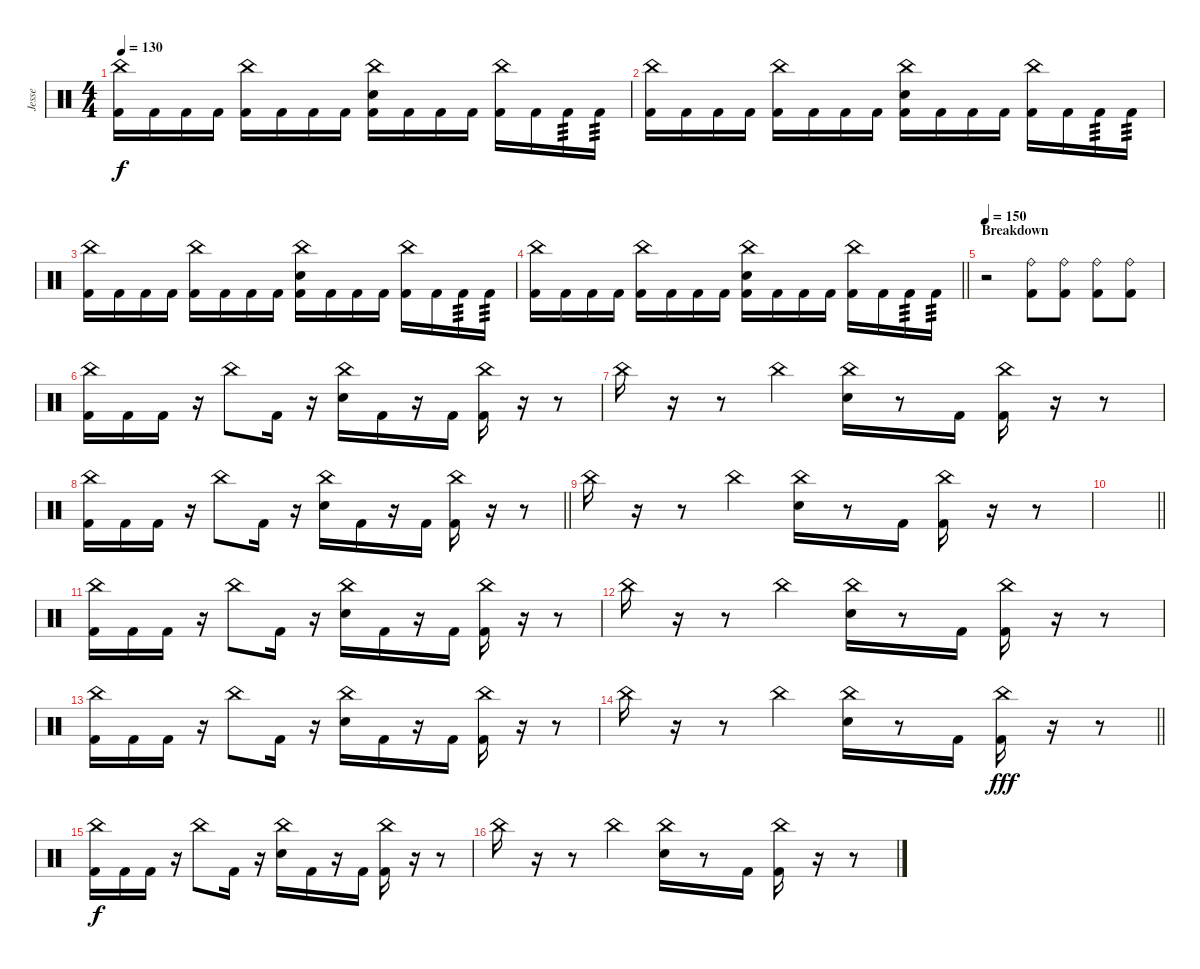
\track ("Jesse" "Jesse") {instrument percussion}
\staff {score}
\articulation defaults
\ts (4 4)
\tempo 130
\clef neutral
\ks c
("China (hit)" "Kick (hit) 2").16{dy f} "Kick (hit) 2".16 "Kick (hit) 2".16 "Kick (hit) 2".16 ("China (hit)" "Kick (hit) 2").16 "Kick (hit) 2".16 "Kick (hit) 2".16 "Kick (hit) 2".16 ("China (hit)" "Electric Snare (hit)" "Kick (hit) 2").16 "Kick (hit) 2".16 "Kick (hit) 2".16 "Kick (hit) 2".16 ("China (hit)" "Kick (hit) 2").16 "Kick (hit) 2".16 "Kick (hit) 2".16{tp 3} "Kick (hit) 2".16{tp 3} |
("China (hit)" "Kick (hit) 2").16 "Kick (hit) 2".16 "Kick (hit) 2".16 "Kick (hit) 2".16 ("China (hit)" "Kick (hit) 2").16 "Kick (hit) 2".16 "Kick (hit) 2".16 "Kick (hit) 2".16 ("China (hit)" "Electric Snare (hit)" "Kick (hit) 2").16 "Kick (hit) 2".16 "Kick (hit) 2".16 "Kick (hit) 2".16 ("China (hit)" "Kick (hit) 2").16 "Kick (hit) 2".16 "Kick (hit) 2".16{tp 3} "Kick (hit) 2".16{tp 3} |
("China (hit)" "Kick (hit) 2").16 "Kick (hit) 2".16 "Kick (hit) 2".16 "Kick (hit) 2".16 ("China (hit)" "Kick (hit) 2").16 "Kick (hit) 2".16 "Kick (hit) 2".16 "Kick (hit) 2".16 ("China (hit)" "Electric Snare (hit)" "Kick (hit) 2").16 "Kick (hit) 2".16 "Kick (hit) 2".16 "Kick (hit) 2".16 ("China (hit)" "Kick (hit) 2").16 "Kick (hit) 2".16 "Kick (hit) 2".16{tp 3} "Kick (hit) 2".16{tp 3} |
\barLineRight lightlight
("China (hit)" "Kick (hit) 2").16 "Kick (hit) 2".16 "Kick (hit) 2".16 "Kick (hit) 2".16 ("China (hit)" "Kick (hit) 2").16 "Kick (hit) 2".16 "Kick (hit) 2".16 "Kick (hit) 2".16 ("China (hit)" "Electric Snare (hit)" "Kick (hit) 2").16 "Kick (hit) 2".16 "Kick (hit) 2".16 "Kick (hit) 2".16 ("China (hit)" "Kick (hit) 2").16 "Kick (hit) 2".16 "Kick (hit) 2".16{tp 3} "Kick (hit) 2".16{tp 3} |
\section ("" "Breakdown")
\tempo 150
r.2 ("Ride (bell)" "Kick (hit) 2").8 ("Ride (bell)" "Kick (hit) 2").8 ("Ride (bell)" "Kick (hit) 2").8 ("Ride (bell)" "Kick (hit) 2").8 |
("China (hit)" "Kick (hit) 2").16 "Kick (hit) 2".16 "Kick (hit) 2".16 r.16 "China (hit)".8 "Kick (hit) 2".16 r.16 ("China (hit)" "Electric Snare (hit)").16 "Kick (hit) 2".16 r.16 "Kick (hit) 2".16 ("China (hit)" "Kick (hit) 2").16 r.16 r.8 |
"China (hit)".16 r.16 r.8 "China (hit)".4 ("China (hit)" "Electric Snare (hit)").16 r.8 "Kick (hit) 2".16 ("China (hit)" "Kick (hit) 2").16 r.16 r.8 |
\barLineRight lightlight
("China (hit)" "Kick (hit) 2").16 "Kick (hit) 2".16 "Kick (hit) 2".16 r.16 "China (hit)".8 "Kick (hit) 2".16 r.16 ("China (hit)" "Electric Snare (hit)").16 "Kick (hit) 2".16 r.16 "Kick (hit) 2".16 ("China (hit)" "Kick (hit) 2").16 r.16 r.8 |
"China (hit)".16 r.16 r.8 "China (hit)".4 ("China (hit)" "Electric Snare (hit)").16 r.8 "Kick (hit) 2".16 ("China (hit)" "Kick (hit) 2").16 r.16 r.8 |
\barLineRight lightlight
|
("China (hit)" "Kick (hit) 2").16 "Kick (hit) 2".16 "Kick (hit) 2".16 r.16 "China (hit)".8 "Kick (hit) 2".16 r.16 ("China (hit)" "Electric Snare (hit)").16 "Kick (hit) 2".16 r.16 "Kick (hit) 2".16 ("China (hit)" "Kick (hit) 2").16 r.16 r.8 |
"China (hit)".16 r.16 r.8 "China (hit)".4 ("China (hit)" "Electric Snare (hit)").16 r.8 "Kick (hit) 2".16 ("China (hit)" "Kick (hit) 2").16 r.16 r.8 |
("China (hit)" "Kick (hit) 2").16 "Kick (hit) 2".16 "Kick (hit) 2".16 r.16 "China (hit)".8 "Kick (hit) 2".16 r.16 ("China (hit)" "Electric Snare (hit)").16 "Kick (hit) 2".16 r.16 "Kick (hit) 2".16 ("China (hit)" "Kick (hit) 2").16 r.16 r.8 |
\barLineRight lightlight "China (hit)".16
r.16 r.8 "China (hit)".4 ("China (hit)" "Electric Snare (hit)").16 r.8 "Kick (hit) 2".16 ("China (hit)" "Kick (hit) 2").16{dy fff} r.16 r.8 |
("China (hit)" "Kick (hit) 2").16{dy f} "Kick (hit) 2".16 "Kick (hit) 2".16 r.16 "China (hit)".8 "Kick (hit) 2".16 r.16 ("China (hit)" "Electric Snare (hit)").16 "Kick (hit) 2".16 r.16 "Kick (hit) 2".16 ("China (hit)" "Kick (hit) 2").16 r.16 r.8 |
"China (hit)".16 r.16 r.8 "China (hit)".4 ("China (hit)" "Electric Snare (hit)").16 r.8 "Kick (hit) 2".16 ("China (hit)" "Kick (hit) 2").16 r.16 r.8
